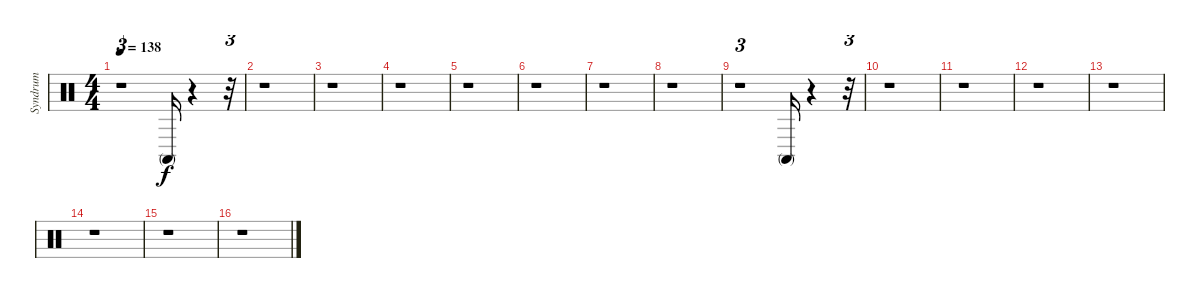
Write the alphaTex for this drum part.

\track ("Syndrum" "Syndrum") {instrument percussion}
\staff {score}
\articulation defaults
\ts (4 4)
\tempo 138
\clef neutral
\ks c
r.1{tu (3 2) dy f} "Conga high (mute)".16 r.4 r.32{tu (3 2)} |
r.1 |
r.1 |
r.1 |
r.1 |
r.1 |
r.1 |
r.1 |
r.1{tu (3 2)} "Conga high (mute)".16 r.4 r.32{tu (3 2)} |
r.1 |
r.1 |
r.1 |
r.1 |
r.1 |
r.1 |
r.1
